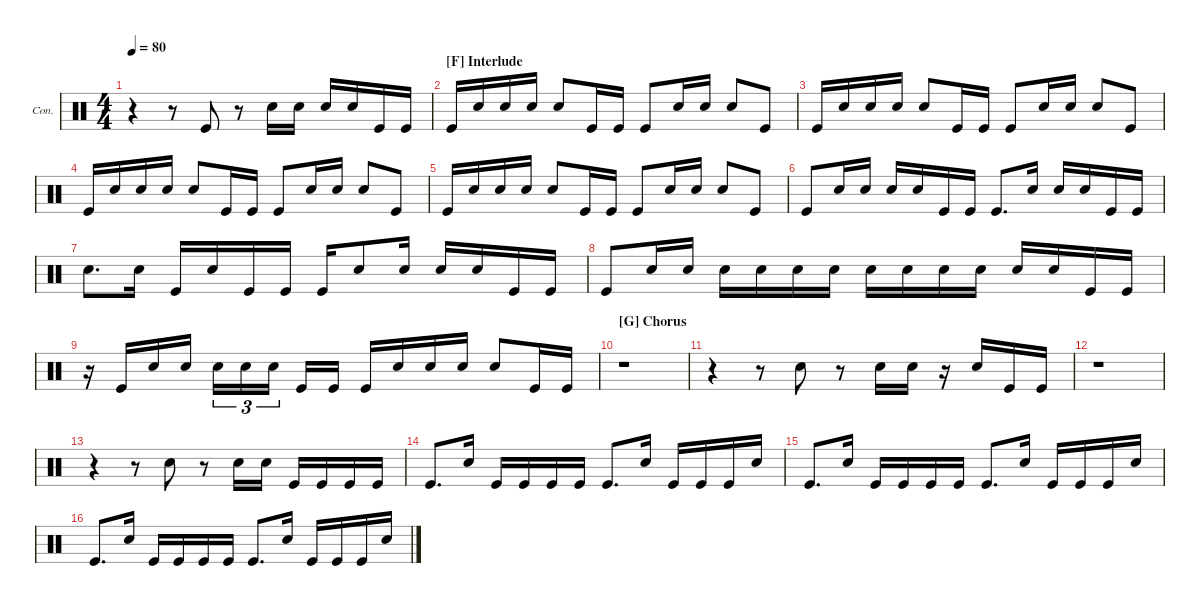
\defaultSystemsLayout 4
\hideDynamics
\bracketExtendMode groupsimilarinstruments
\firstSystemTrackNameOrientation horizontal
\otherSystemsTrackNameOrientation horizontal
\track ("Congas" "Con.") {multiBarRest instrument percussion}
\staff {score}
\articulation defaults
\ts (4 4)
\tempo 80
\clef neutral
\ks c
r.4{dy mf} r.8 "Kick (hit)".8 r.8 "Snare (hit) 2".16 "Snare (hit) 2".16 "Snare (hit) 2".16 "Snare (hit) 2".16 "Kick (hit)".16 "Kick (hit)".16 |
\section ("F" "Interlude")
"Kick (hit)".16 "Snare (hit) 2".16 "Snare (hit) 2".16 "Snare (hit) 2".16 "Snare (hit) 2".8 "Kick (hit)".16 "Kick (hit)".16 "Kick (hit)".8 "Snare (hit) 2".16 "Snare (hit) 2".16 "Snare (hit) 2".8 "Kick (hit)".8 |
"Kick (hit)".16 "Snare (hit) 2".16 "Snare (hit) 2".16 "Snare (hit) 2".16 "Snare (hit) 2".8 "Kick (hit)".16 "Kick (hit)".16 "Kick (hit)".8 "Snare (hit) 2".16 "Snare (hit) 2".16 "Snare (hit) 2".8 "Kick (hit)".8 |
"Kick (hit)".16 "Snare (hit) 2".16 "Snare (hit) 2".16 "Snare (hit) 2".16 "Snare (hit) 2".8 "Kick (hit)".16 "Kick (hit)".16 "Kick (hit)".8 "Snare (hit) 2".16 "Snare (hit) 2".16 "Snare (hit) 2".8 "Kick (hit)".8 |
"Kick (hit)".16 "Snare (hit) 2".16 "Snare (hit) 2".16 "Snare (hit) 2".16 "Snare (hit) 2".8 "Kick (hit)".16 "Kick (hit)".16 "Kick (hit)".8 "Snare (hit) 2".16 "Snare (hit) 2".16 "Snare (hit) 2".8 "Kick (hit)".8 |
"Kick (hit)".8 "Snare (hit) 2".16 "Snare (hit) 2".16 "Snare (hit) 2".16 "Snare (hit) 2".16 "Kick (hit)".16 "Kick (hit)".16 "Kick (hit)".8{d} "Snare (hit) 2".16 "Snare (hit) 2".16 "Snare (hit) 2".16 "Kick (hit)".16 "Kick (hit)".16 |
"Snare (hit) 2".8{d} "Snare (hit) 2".16 "Kick (hit)".16 "Snare (hit) 2".16 "Kick (hit)".16 "Kick (hit)".16 "Kick (hit)".16 "Snare (hit) 2".8 "Snare (hit) 2".16 "Snare (hit) 2".16 "Snare (hit) 2".16 "Kick (hit)".16 "Kick (hit)".16 |
"Kick (hit)".8 "Snare (hit) 2".16 "Snare (hit) 2".16 "Snare (hit) 2".16 "Snare (hit) 2".16 "Snare (hit) 2".16 "Snare (hit) 2".16 "Snare (hit) 2".16 "Snare (hit) 2".16 "Snare (hit) 2".16 "Snare (hit) 2".16 "Snare (hit) 2".16 "Snare (hit) 2".16 "Kick (hit)".16 "Kick (hit)".16 |
r.16 "Kick (hit)".16 "Snare (hit) 2".16 "Snare (hit) 2".16 "Snare (hit) 2".16{tu (3 2)} "Snare (hit) 2".16{tu (3 2)} "Snare (hit) 2".16{tu (3 2) beam splitsecondary} "Kick (hit)".16 "Kick (hit)".16 "Kick (hit)".16 "Snare (hit) 2".16 "Snare (hit) 2".16 "Snare (hit) 2".16 "Snare (hit) 2".8 "Kick (hit)".16 "Kick (hit)".16 |
\section ("G" "Chorus")
r.1 |
r.4 r.8 "Snare (hit) 2".8 r.8 "Snare (hit) 2".16 "Snare (hit) 2".16 r.16 "Snare (hit) 2".16 "Kick (hit)".16 "Kick (hit)".16 |
r.1 |
r.4 r.8 "Snare (hit) 2".8 r.8 "Snare (hit) 2".16 "Snare (hit) 2".16 "Kick (hit)".16 "Kick (hit)".16 "Kick (hit)".16 "Kick (hit)".16 |
"Kick (hit)".8{d} "Snare (hit) 2".16 "Kick (hit)".16 "Kick (hit)".16 "Kick (hit)".16 "Kick (hit)".16 "Kick (hit)".8{d} "Snare (hit) 2".16 "Kick (hit)".16 "Kick (hit)".16 "Kick (hit)".16 "Snare (hit) 2".16 |
"Kick (hit)".8{d} "Snare (hit) 2".16 "Kick (hit)".16 "Kick (hit)".16 "Kick (hit)".16 "Kick (hit)".16 "Kick (hit)".8{d} "Snare (hit) 2".16 "Kick (hit)".16 "Kick (hit)".16 "Kick (hit)".16 "Snare (hit) 2".16 |
"Kick (hit)".8{d} "Snare (hit) 2".16 "Kick (hit)".16 "Kick (hit)".16 "Kick (hit)".16 "Kick (hit)".16 "Kick (hit)".8{d} "Snare (hit) 2".16 "Kick (hit)".16 "Kick (hit)".16 "Kick (hit)".16 "Snare (hit) 2".16
